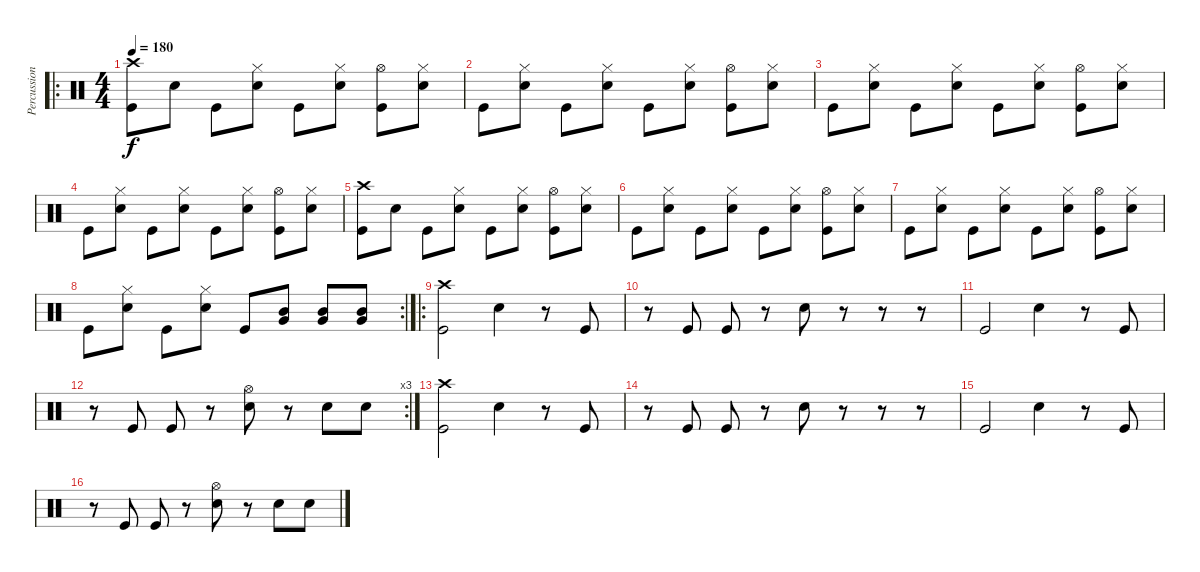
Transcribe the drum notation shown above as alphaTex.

\track ("Percussion" "Percussion") {instrument percussion}
\staff {score}
\articulation defaults
\ro
\ts (4 4)
\tempo 180
\clef neutral
\ks c
("Kick (hit)" "Crash high (hit)").8{dy f} "Snare (hit) 2".8 "Kick (hit)".8 ("Snare (hit) 2" "Hi-Hat (closed)").8 "Kick (hit)".8 ("Snare (hit) 2" "Hi-Hat (closed)").8 ("Kick (hit)" "Hi-Hat (open)").8 ("Snare (hit) 2" "Hi-Hat (closed)").8 |
"Kick (hit)".8 ("Snare (hit) 2" "Hi-Hat (closed)").8 "Kick (hit)".8 ("Snare (hit) 2" "Hi-Hat (closed)").8 "Kick (hit)".8 ("Snare (hit) 2" "Hi-Hat (closed)").8 ("Kick (hit)" "Hi-Hat (open)").8 ("Snare (hit) 2" "Hi-Hat (closed)").8 |
"Kick (hit)".8 ("Snare (hit) 2" "Hi-Hat (closed)").8 "Kick (hit)".8 ("Snare (hit) 2" "Hi-Hat (closed)").8 "Kick (hit)".8 ("Snare (hit) 2" "Hi-Hat (closed)").8 ("Kick (hit)" "Hi-Hat (open)").8 ("Snare (hit) 2" "Hi-Hat (closed)").8 |
"Kick (hit)".8 ("Snare (hit) 2" "Hi-Hat (closed)").8 "Kick (hit)".8 ("Snare (hit) 2" "Hi-Hat (closed)").8 "Kick (hit)".8 ("Snare (hit) 2" "Hi-Hat (closed)").8 ("Kick (hit)" "Hi-Hat (open)").8 ("Snare (hit) 2" "Hi-Hat (closed)").8 |
("Kick (hit)" "Crash high (hit)").8 "Snare (hit) 2".8 "Kick (hit)".8 ("Snare (hit) 2" "Hi-Hat (closed)").8 "Kick (hit)".8 ("Snare (hit) 2" "Hi-Hat (closed)").8 ("Kick (hit)" "Hi-Hat (open)").8 ("Snare (hit) 2" "Hi-Hat (closed)").8 |
"Kick (hit)".8 ("Snare (hit) 2" "Hi-Hat (closed)").8 "Kick (hit)".8 ("Snare (hit) 2" "Hi-Hat (closed)").8 "Kick (hit)".8 ("Snare (hit) 2" "Hi-Hat (closed)").8 ("Kick (hit)" "Hi-Hat (open)").8 ("Snare (hit) 2" "Hi-Hat (closed)").8 |
"Kick (hit)".8 ("Snare (hit) 2" "Hi-Hat (closed)").8 "Kick (hit)".8 ("Snare (hit) 2" "Hi-Hat (closed)").8 "Kick (hit)".8 ("Snare (hit) 2" "Hi-Hat (closed)").8 ("Kick (hit)" "Hi-Hat (open)").8 ("Snare (hit) 2" "Hi-Hat (closed)").8 |
\rc 2 "Kick (hit)".8
("Snare (hit) 2" "Hi-Hat (closed)").8 "Kick (hit)".8 ("Snare (hit) 2" "Hi-Hat (closed)").8 "Kick (hit)".8 ("Very Low Tom (hit)" "Mid Tom (hit)").8 ("Mid Tom (hit)" "Very Low Tom (hit)").8 ("Mid Tom (hit)" "Very Low Tom (hit)").8 |
\ro
("Kick (hit)" "Crash high (hit)").2 "Snare (hit) 2".4 r.8 "Kick (hit)".8 |
r.8 "Kick (hit)".8 "Kick (hit)".8 r.8 "Snare (hit) 2".8 r.8 r.8 r.8 |
"Kick (hit)".2 "Snare (hit) 2".4 r.8 "Kick (hit)".8 |
\rc 3
r.8 "Kick (hit)".8 "Kick (hit)".8 r.8 ("Snare (hit) 2" "Hi-Hat (open)").8 r.8 "Snare (hit) 2".8 "Snare (hit) 2".8 |
("Kick (hit)" "Crash high (hit)").2 "Snare (hit) 2".4 r.8 "Kick (hit)".8 |
r.8 "Kick (hit)".8 "Kick (hit)".8 r.8 "Snare (hit) 2".8 r.8 r.8 r.8 |
"Kick (hit)".2 "Snare (hit) 2".4 r.8 "Kick (hit)".8 |
r.8 "Kick (hit)".8 "Kick (hit)".8 r.8 ("Snare (hit) 2" "Hi-Hat (open)").8 r.8 "Snare (hit) 2".8 "Snare (hit) 2".8
